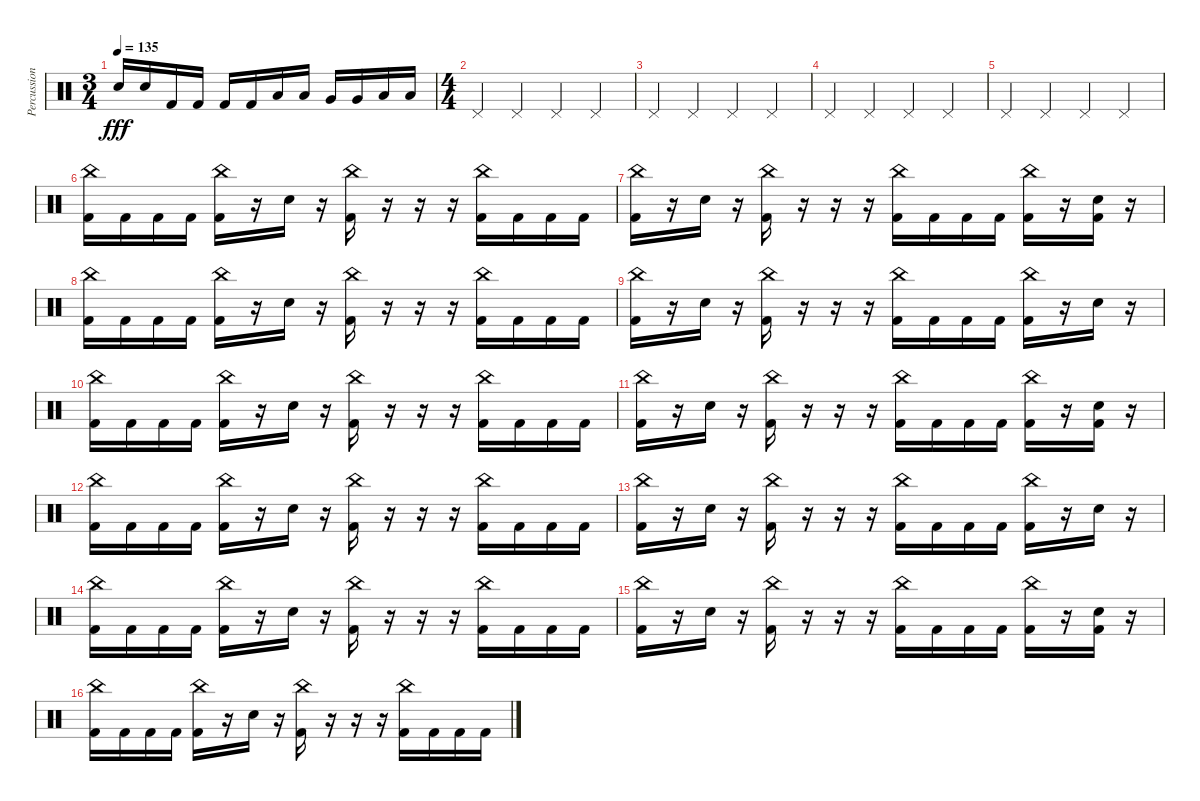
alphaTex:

\track ("Percussion" "Percussion") {instrument percussion}
\staff {score}
\articulation defaults
\ts (3 4)
\tempo 135
\clef neutral
\ks c "Snare (hit) 2".16{dy fff} "Snare (hit) 2".16 "Kick (hit) 2".16 "Kick (hit) 2".16 "Kick (hit) 2".16 "Kick (hit) 2".16 "Low Tom (hit)".16 "Low Tom (hit)".16 "Very Low Tom (hit)".16 "Very Low Tom (hit)".16 "Low Floor Tom (hit)".16 "Low Floor Tom (hit)".16
|
\ts (4 4)
"Pedal Hi-Hat (hit)".4 "Pedal Hi-Hat (hit)".4 "Pedal Hi-Hat (hit)".4 "Pedal Hi-Hat (hit)".4 |
"Pedal Hi-Hat (hit)".4 "Pedal Hi-Hat (hit)".4 "Pedal Hi-Hat (hit)".4 "Pedal Hi-Hat (hit)".4 |
"Pedal Hi-Hat (hit)".4 "Pedal Hi-Hat (hit)".4 "Pedal Hi-Hat (hit)".4 "Pedal Hi-Hat (hit)".4 |
"Pedal Hi-Hat (hit)".4 "Pedal Hi-Hat (hit)".4 "Pedal Hi-Hat (hit)".4 "Pedal Hi-Hat (hit)".4 |
("China (hit)" "Kick (hit) 2").16 "Kick (hit) 2".16 "Kick (hit) 2".16 "Kick (hit) 2".16 ("China (hit)" "Kick (hit) 2").16 r.16 "Snare (hit) 2".16 r.16 ("China (hit)" "Kick (hit) 2").16 r.16 r.16 r.16 ("China (hit)" "Kick (hit) 2").16 "Kick (hit) 2".16 "Kick (hit) 2".16 "Kick (hit) 2".16 |
("China (hit)" "Kick (hit) 2").16 r.16 "Snare (hit) 2".16 r.16 ("China (hit)" "Kick (hit) 2").16 r.16 r.16 r.16 ("China (hit)" "Kick (hit) 2").16 "Kick (hit) 2".16 "Kick (hit) 2".16 "Kick (hit) 2".16 ("China (hit)" "Kick (hit) 2").16 r.16 ("Snare (hit) 2" "Kick (hit) 2").16 r.16 |
("China (hit)" "Kick (hit) 2").16 "Kick (hit) 2".16 "Kick (hit) 2".16 "Kick (hit) 2".16 ("China (hit)" "Kick (hit) 2").16 r.16 "Snare (hit) 2".16 r.16 ("China (hit)" "Kick (hit) 2").16 r.16 r.16 r.16 ("China (hit)" "Kick (hit) 2").16 "Kick (hit) 2".16 "Kick (hit) 2".16 "Kick (hit) 2".16 |
("China (hit)" "Kick (hit) 2").16 r.16 "Snare (hit) 2".16 r.16 ("China (hit)" "Kick (hit) 2").16 r.16 r.16 r.16 ("China (hit)" "Kick (hit) 2").16 "Kick (hit) 2".16 "Kick (hit) 2".16 "Kick (hit) 2".16 ("China (hit)" "Kick (hit) 2").16 r.16 "Snare (hit) 2".16 r.16 |
("China (hit)" "Kick (hit) 2").16 "Kick (hit) 2".16 "Kick (hit) 2".16 "Kick (hit) 2".16 ("China (hit)" "Kick (hit) 2").16 r.16 "Snare (hit) 2".16 r.16 ("China (hit)" "Kick (hit) 2").16 r.16 r.16 r.16 ("China (hit)" "Kick (hit) 2").16 "Kick (hit) 2".16 "Kick (hit) 2".16 "Kick (hit) 2".16 |
("China (hit)" "Kick (hit) 2").16 r.16 "Snare (hit) 2".16 r.16 ("China (hit)" "Kick (hit) 2").16 r.16 r.16 r.16 ("China (hit)" "Kick (hit) 2").16 "Kick (hit) 2".16 "Kick (hit) 2".16 "Kick (hit) 2".16 ("China (hit)" "Kick (hit) 2").16 r.16 ("Snare (hit) 2" "Kick (hit) 2").16 r.16 |
("China (hit)" "Kick (hit) 2").16 "Kick (hit) 2".16 "Kick (hit) 2".16 "Kick (hit) 2".16 ("China (hit)" "Kick (hit) 2").16 r.16 "Snare (hit) 2".16 r.16 ("China (hit)" "Kick (hit) 2").16 r.16 r.16 r.16 ("China (hit)" "Kick (hit) 2").16 "Kick (hit) 2".16 "Kick (hit) 2".16 "Kick (hit) 2".16 |
("China (hit)" "Kick (hit) 2").16 r.16 "Snare (hit) 2".16 r.16 ("China (hit)" "Kick (hit) 2").16 r.16 r.16 r.16 ("China (hit)" "Kick (hit) 2").16 "Kick (hit) 2".16 "Kick (hit) 2".16 "Kick (hit) 2".16 ("China (hit)" "Kick (hit) 2").16 r.16 "Snare (hit) 2".16 r.16 |
("China (hit)" "Kick (hit) 2").16 "Kick (hit) 2".16 "Kick (hit) 2".16 "Kick (hit) 2".16 ("China (hit)" "Kick (hit) 2").16 r.16 "Snare (hit) 2".16 r.16 ("China (hit)" "Kick (hit) 2").16 r.16 r.16 r.16 ("China (hit)" "Kick (hit) 2").16 "Kick (hit) 2".16 "Kick (hit) 2".16 "Kick (hit) 2".16 |
("China (hit)" "Kick (hit) 2").16 r.16 "Snare (hit) 2".16 r.16 ("China (hit)" "Kick (hit) 2").16 r.16 r.16 r.16 ("China (hit)" "Kick (hit) 2").16 "Kick (hit) 2".16 "Kick (hit) 2".16 "Kick (hit) 2".16 ("China (hit)" "Kick (hit) 2").16 r.16 ("Snare (hit) 2" "Kick (hit) 2").16 r.16 |
("China (hit)" "Kick (hit) 2").16 "Kick (hit) 2".16 "Kick (hit) 2".16 "Kick (hit) 2".16 ("China (hit)" "Kick (hit) 2").16 r.16 "Snare (hit) 2".16 r.16 ("China (hit)" "Kick (hit) 2").16 r.16 r.16 r.16 ("China (hit)" "Kick (hit) 2").16 "Kick (hit) 2".16 "Kick (hit) 2".16 "Kick (hit) 2".16
